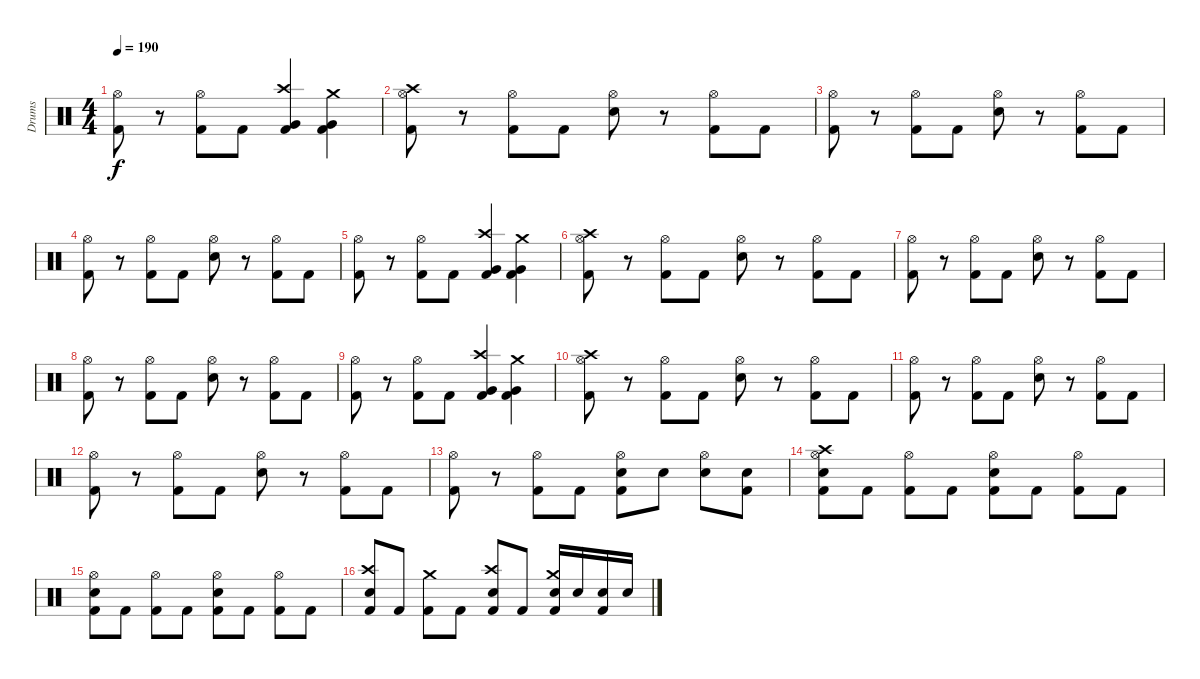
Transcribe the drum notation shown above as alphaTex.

\track ("Drums" "Drums") {instrument percussion}
\staff {score}
\articulation defaults
\ts (4 4)
\tempo 190
\clef neutral
\ks c
("Hi-Hat (open)" "Kick (hit) 2").8{dy f} r.8 ("Hi-Hat (open)" "Kick (hit) 2").8 "Kick (hit) 2".8 ("Crash high (hit)" "Very Low Tom (hit)" "Kick (hit) 2").4 ("Crash medium (hit)" "Very Low Tom (hit)" "Kick (hit) 2").4 |
("Crash high (hit)" "Hi-Hat (open)" "Kick (hit) 2").8 r.8 ("Hi-Hat (open)" "Kick (hit) 2").8 "Kick (hit) 2".8 ("Hi-Hat (open)" "Snare (hit) 2").8 r.8 ("Hi-Hat (open)" "Kick (hit) 2").8 "Kick (hit) 2".8 |
("Hi-Hat (open)" "Kick (hit) 2").8 r.8 ("Hi-Hat (open)" "Kick (hit) 2").8 "Kick (hit) 2".8 ("Hi-Hat (open)" "Snare (hit) 2").8 r.8 ("Hi-Hat (open)" "Kick (hit) 2").8 "Kick (hit) 2".8 |
("Hi-Hat (open)" "Kick (hit) 2").8 r.8 ("Hi-Hat (open)" "Kick (hit) 2").8 "Kick (hit) 2".8 ("Hi-Hat (open)" "Snare (hit) 2").8 r.8 ("Hi-Hat (open)" "Kick (hit) 2").8 "Kick (hit) 2".8 |
("Hi-Hat (open)" "Kick (hit) 2").8 r.8 ("Hi-Hat (open)" "Kick (hit) 2").8 "Kick (hit) 2".8 ("Crash high (hit)" "Very Low Tom (hit)" "Kick (hit) 2").4 ("Crash medium (hit)" "Very Low Tom (hit)" "Kick (hit) 2").4 |
("Crash high (hit)" "Hi-Hat (open)" "Kick (hit) 2").8 r.8 ("Hi-Hat (open)" "Kick (hit) 2").8 "Kick (hit) 2".8 ("Hi-Hat (open)" "Snare (hit) 2").8 r.8 ("Hi-Hat (open)" "Kick (hit) 2").8 "Kick (hit) 2".8 |
("Hi-Hat (open)" "Kick (hit) 2").8 r.8 ("Hi-Hat (open)" "Kick (hit) 2").8 "Kick (hit) 2".8 ("Hi-Hat (open)" "Snare (hit) 2").8 r.8 ("Hi-Hat (open)" "Kick (hit) 2").8 "Kick (hit) 2".8 |
("Hi-Hat (open)" "Kick (hit) 2").8 r.8 ("Hi-Hat (open)" "Kick (hit) 2").8 "Kick (hit) 2".8 ("Hi-Hat (open)" "Snare (hit) 2").8 r.8 ("Hi-Hat (open)" "Kick (hit) 2").8 "Kick (hit) 2".8 |
("Hi-Hat (open)" "Kick (hit) 2").8 r.8 ("Hi-Hat (open)" "Kick (hit) 2").8 "Kick (hit) 2".8 ("Crash high (hit)" "Very Low Tom (hit)" "Kick (hit) 2").4 ("Crash medium (hit)" "Very Low Tom (hit)" "Kick (hit) 2").4 |
("Crash high (hit)" "Hi-Hat (open)" "Kick (hit) 2").8 r.8 ("Hi-Hat (open)" "Kick (hit) 2").8 "Kick (hit) 2".8 ("Hi-Hat (open)" "Snare (hit) 2").8 r.8 ("Hi-Hat (open)" "Kick (hit) 2").8 "Kick (hit) 2".8 |
("Hi-Hat (open)" "Kick (hit) 2").8 r.8 ("Hi-Hat (open)" "Kick (hit) 2").8 "Kick (hit) 2".8 ("Hi-Hat (open)" "Snare (hit) 2").8 r.8 ("Hi-Hat (open)" "Kick (hit) 2").8 "Kick (hit) 2".8 |
("Hi-Hat (open)" "Kick (hit) 2").8 r.8 ("Hi-Hat (open)" "Kick (hit) 2").8 "Kick (hit) 2".8 ("Hi-Hat (open)" "Snare (hit) 2").8 r.8 ("Hi-Hat (open)" "Kick (hit) 2").8 "Kick (hit) 2".8 |
("Hi-Hat (open)" "Kick (hit) 2").8 r.8 ("Hi-Hat (open)" "Kick (hit) 2").8 "Kick (hit) 2".8 ("Hi-Hat (open)" "Snare (hit) 2" "Kick (hit) 2").8 "Snare (hit) 2".8 ("Hi-Hat (open)" "Snare (hit) 2").8 ("Snare (hit) 2" "Kick (hit) 2").8 |
("Crash high (hit)" "Hi-Hat (open)" "Snare (hit) 2" "Kick (hit) 2").8 "Kick (hit) 2".8 ("Hi-Hat (open)" "Kick (hit) 2").8 "Kick (hit) 2".8 ("Hi-Hat (open)" "Snare (hit) 2" "Kick (hit) 2").8 "Kick (hit) 2".8 ("Hi-Hat (open)" "Kick (hit) 2").8 "Kick (hit) 2".8 |
("Hi-Hat (open)" "Snare (hit) 2" "Kick (hit) 2").8 "Kick (hit) 2".8 ("Hi-Hat (open)" "Kick (hit) 2").8 "Kick (hit) 2".8 ("Hi-Hat (open)" "Snare (hit) 2" "Kick (hit) 2").8 "Kick (hit) 2".8 ("Hi-Hat (open)" "Kick (hit) 2").8 "Kick (hit) 2".8 |
("Crash high (hit)" "Snare (hit) 2" "Kick (hit) 2").8 "Kick (hit) 2".8 ("Crash medium (hit)" "Kick (hit) 2").8 "Kick (hit) 2".8 ("Crash high (hit)" "Snare (hit) 2" "Kick (hit) 2").8 "Kick (hit) 2".8 ("Crash medium (hit)" "Snare (hit) 2" "Kick (hit) 2").16 "Snare (hit) 2".16 ("Snare (hit) 2" "Kick (hit) 2").16 "Snare (hit) 2".16
